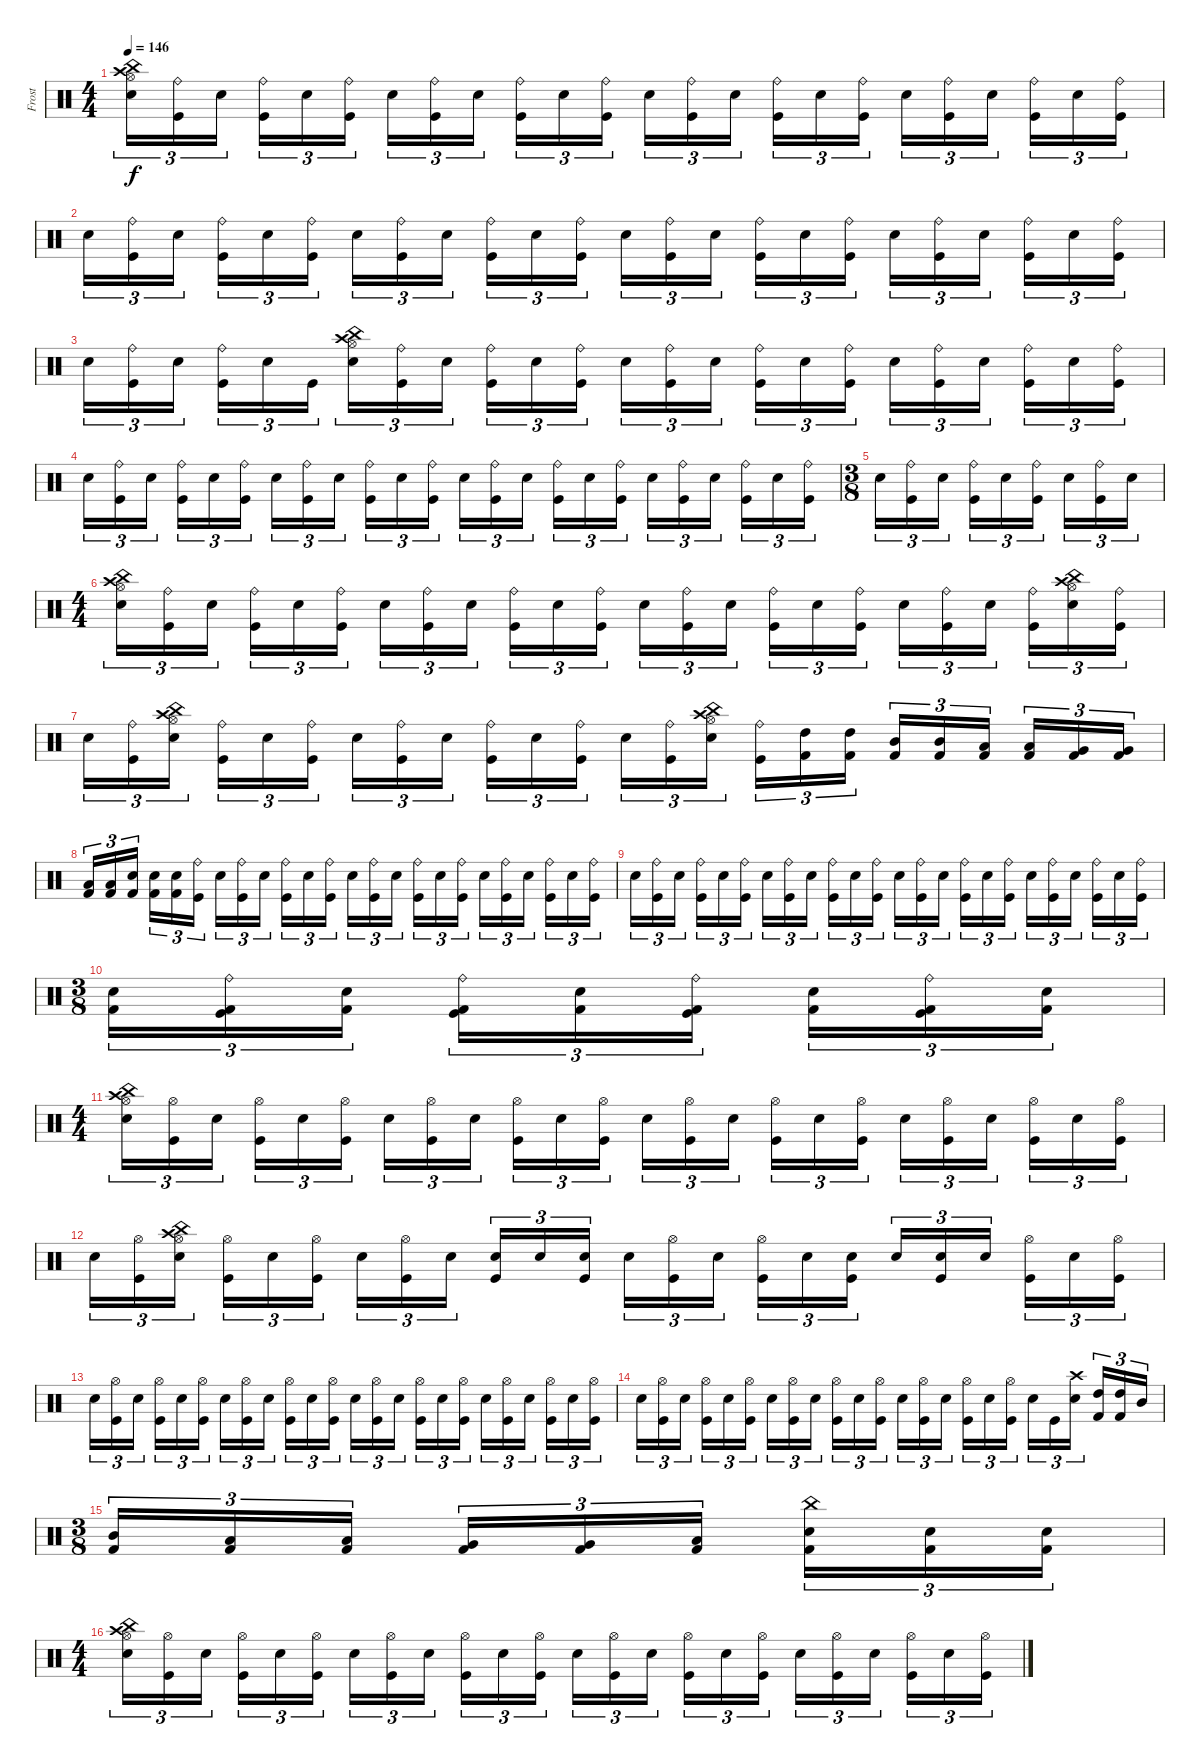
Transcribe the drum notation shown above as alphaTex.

\track ("Frost" "Frost") {instrument percussion}
\staff {score}
\articulation defaults
\ts (4 4)
\tempo 146
\clef neutral
\ks c
("China (hit)" "Crash high (hit)" "Electric Snare (hit)" "Hi-Hat (open)").16{tu (3 2) dy f} ("Ride (bell)" "Kick (hit)").16{tu (3 2)} "Electric Snare (hit)".16{tu (3 2)} ("Ride (bell)" "Kick (hit)").16{tu (3 2)} "Electric Snare (hit)".16{tu (3 2)} ("Ride (bell)" "Kick (hit)").16{tu (3 2)} "Electric Snare (hit)".16{tu (3 2)} ("Ride (bell)" "Kick (hit)").16{tu (3 2)} "Electric Snare (hit)".16{tu (3 2)} ("Ride (bell)" "Kick (hit)").16{tu (3 2)} "Electric Snare (hit)".16{tu (3 2)} ("Ride (bell)" "Kick (hit)").16{tu (3 2)} "Electric Snare (hit)".16{tu (3 2)} ("Ride (bell)" "Kick (hit)").16{tu (3 2)} "Electric Snare (hit)".16{tu (3 2)} ("Ride (bell)" "Kick (hit)").16{tu (3 2)} "Electric Snare (hit)".16{tu (3 2)} ("Ride (bell)" "Kick (hit)").16{tu (3 2)} "Electric Snare (hit)".16{tu (3 2)} ("Ride (bell)" "Kick (hit)").16{tu (3 2)} "Electric Snare (hit)".16{tu (3 2)} ("Ride (bell)" "Kick (hit)").16{tu (3 2)} "Electric Snare (hit)".16{tu (3 2)} ("Ride (bell)" "Kick (hit)").16{tu (3 2)} |
"Electric Snare (hit)".16{tu (3 2)} ("Ride (bell)" "Kick (hit)").16{tu (3 2)} "Electric Snare (hit)".16{tu (3 2)} ("Ride (bell)" "Kick (hit)").16{tu (3 2)} "Electric Snare (hit)".16{tu (3 2)} ("Ride (bell)" "Kick (hit)").16{tu (3 2)} "Electric Snare (hit)".16{tu (3 2)} ("Ride (bell)" "Kick (hit)").16{tu (3 2)} "Electric Snare (hit)".16{tu (3 2)} ("Ride (bell)" "Kick (hit)").16{tu (3 2)} "Electric Snare (hit)".16{tu (3 2)} ("Ride (bell)" "Kick (hit)").16{tu (3 2)} "Electric Snare (hit)".16{tu (3 2)} ("Ride (bell)" "Kick (hit)").16{tu (3 2)} "Electric Snare (hit)".16{tu (3 2)} ("Ride (bell)" "Kick (hit)").16{tu (3 2)} "Electric Snare (hit)".16{tu (3 2)} ("Ride (bell)" "Kick (hit)").16{tu (3 2)} "Electric Snare (hit)".16{tu (3 2)} ("Ride (bell)" "Kick (hit)").16{tu (3 2)} "Electric Snare (hit)".16{tu (3 2)} ("Ride (bell)" "Kick (hit)").16{tu (3 2)} "Electric Snare (hit)".16{tu (3 2)} ("Ride (bell)" "Kick (hit)").16{tu (3 2)} |
"Electric Snare (hit)".16{tu (3 2)} ("Ride (bell)" "Kick (hit)").16{tu (3 2)} "Electric Snare (hit)".16{tu (3 2)} ("Ride (bell)" "Kick (hit)").16{tu (3 2)} "Electric Snare (hit)".16{tu (3 2)} "Kick (hit)".16{tu (3 2)} ("China (hit)" "Crash high (hit)" "Hi-Hat (open)" "Electric Snare (hit)").16{tu (3 2)} ("Ride (bell)" "Kick (hit)").16{tu (3 2)} "Electric Snare (hit)".16{tu (3 2)} ("Ride (bell)" "Kick (hit)").16{tu (3 2)} "Electric Snare (hit)".16{tu (3 2)} ("Ride (bell)" "Kick (hit)").16{tu (3 2)} "Electric Snare (hit)".16{tu (3 2)} ("Ride (bell)" "Kick (hit)").16{tu (3 2)} "Electric Snare (hit)".16{tu (3 2)} ("Ride (bell)" "Kick (hit)").16{tu (3 2)} "Electric Snare (hit)".16{tu (3 2)} ("Ride (bell)" "Kick (hit)").16{tu (3 2)} "Electric Snare (hit)".16{tu (3 2)} ("Ride (bell)" "Kick (hit)").16{tu (3 2)} "Electric Snare (hit)".16{tu (3 2)} ("Ride (bell)" "Kick (hit)").16{tu (3 2)} "Electric Snare (hit)".16{tu (3 2)} ("Ride (bell)" "Kick (hit)").16{tu (3 2)} |
"Electric Snare (hit)".16{tu (3 2)} ("Ride (bell)" "Kick (hit)").16{tu (3 2)} "Electric Snare (hit)".16{tu (3 2)} ("Ride (bell)" "Kick (hit)").16{tu (3 2)} "Electric Snare (hit)".16{tu (3 2)} ("Ride (bell)" "Kick (hit)").16{tu (3 2)} "Electric Snare (hit)".16{tu (3 2)} ("Ride (bell)" "Kick (hit)").16{tu (3 2)} "Electric Snare (hit)".16{tu (3 2)} ("Ride (bell)" "Kick (hit)").16{tu (3 2)} "Electric Snare (hit)".16{tu (3 2)} ("Ride (bell)" "Kick (hit)").16{tu (3 2)} "Electric Snare (hit)".16{tu (3 2)} ("Ride (bell)" "Kick (hit)").16{tu (3 2)} "Electric Snare (hit)".16{tu (3 2)} ("Ride (bell)" "Kick (hit)").16{tu (3 2)} "Electric Snare (hit)".16{tu (3 2)} ("Ride (bell)" "Kick (hit)").16{tu (3 2)} "Electric Snare (hit)".16{tu (3 2)} ("Ride (bell)" "Kick (hit)").16{tu (3 2)} "Electric Snare (hit)".16{tu (3 2)} ("Ride (bell)" "Kick (hit)").16{tu (3 2)} "Electric Snare (hit)".16{tu (3 2)} ("Ride (bell)" "Kick (hit)").16{tu (3 2)} |
\ts (3 8)
"Electric Snare (hit)".16{tu (3 2)} ("Ride (bell)" "Kick (hit)").16{tu (3 2)} "Electric Snare (hit)".16{tu (3 2)} ("Ride (bell)" "Kick (hit)").16{tu (3 2)} "Electric Snare (hit)".16{tu (3 2)} ("Ride (bell)" "Kick (hit)").16{tu (3 2)} "Electric Snare (hit)".16{tu (3 2)} ("Ride (bell)" "Kick (hit)").16{tu (3 2)} "Electric Snare (hit)".16{tu (3 2)} |
\ts (4 4)
("China (hit)" "Crash high (hit)" "Electric Snare (hit)" "Hi-Hat (open)").16{tu (3 2)} ("Ride (bell)" "Kick (hit)").16{tu (3 2)} "Electric Snare (hit)".16{tu (3 2)} ("Ride (bell)" "Kick (hit)").16{tu (3 2)} "Electric Snare (hit)".16{tu (3 2)} ("Ride (bell)" "Kick (hit)").16{tu (3 2)} "Electric Snare (hit)".16{tu (3 2)} ("Ride (bell)" "Kick (hit)").16{tu (3 2)} "Electric Snare (hit)".16{tu (3 2)} ("Ride (bell)" "Kick (hit)").16{tu (3 2)} "Electric Snare (hit)".16{tu (3 2)} ("Ride (bell)" "Kick (hit)").16{tu (3 2)} "Electric Snare (hit)".16{tu (3 2)} ("Ride (bell)" "Kick (hit)").16{tu (3 2)} "Electric Snare (hit)".16{tu (3 2)} ("Ride (bell)" "Kick (hit)").16{tu (3 2)} "Electric Snare (hit)".16{tu (3 2)} ("Ride (bell)" "Kick (hit)").16{tu (3 2)} "Electric Snare (hit)".16{tu (3 2)} ("Ride (bell)" "Kick (hit)").16{tu (3 2)} "Electric Snare (hit)".16{tu (3 2)} ("Ride (bell)" "Kick (hit)").16{tu (3 2)} ("Crash high (hit)" "China (hit)" "Hi-Hat (open)" "Electric Snare (hit)").16{tu (3 2)} ("Ride (bell)" "Kick (hit)").16{tu (3 2)} |
"Electric Snare (hit)".16{tu (3 2)} ("Ride (bell)" "Kick (hit)").16{tu (3 2)} ("Crash high (hit)" "China (hit)" "Hi-Hat (open)" "Electric Snare (hit)").16{tu (3 2)} ("Ride (bell)" "Kick (hit)").16{tu (3 2)} "Electric Snare (hit)".16{tu (3 2)} ("Ride (bell)" "Kick (hit)").16{tu (3 2)} "Electric Snare (hit)".16{tu (3 2)} ("Ride (bell)" "Kick (hit)").16{tu (3 2)} "Electric Snare (hit)".16{tu (3 2)} ("Ride (bell)" "Kick (hit)").16{tu (3 2)} "Electric Snare (hit)".16{tu (3 2)} ("Ride (bell)" "Kick (hit)").16{tu (3 2)} "Electric Snare (hit)".16{tu (3 2)} ("Ride (bell)" "Kick (hit)").16{tu (3 2)} ("Crash high (hit)" "China (hit)" "Hi-Hat (open)" "Electric Snare (hit)").16{tu (3 2)} ("Ride (bell)" "Kick (hit)").16{tu (3 2)} ("Kick (hit) 2" "High Tom (hit)").16{tu (3 2)} ("Kick (hit) 2" "High Tom (hit)").16{tu (3 2)} ("Kick (hit) 2" "Mid Tom (hit)").16{tu (3 2)} ("Kick (hit) 2" "Mid Tom (hit)").16{tu (3 2)} ("Kick (hit) 2" "Low Tom (hit)").16{tu (3 2)} ("Kick (hit) 2" "Low Tom (hit)").16{tu (3 2)} ("Kick (hit) 2" "Very Low Tom (hit)").16{tu (3 2)} ("Kick (hit) 2" "Very Low Tom (hit)").16{tu (3 2)} |
("Kick (hit) 2" "Low Floor Tom (hit)").16{tu (3 2)} ("Kick (hit) 2" "Low Floor Tom (hit)").16{tu (3 2)} ("Kick (hit) 2" "Electric Snare (hit)").16{tu (3 2)} ("Kick (hit) 2" "Electric Snare (hit)").16{tu (3 2)} ("Kick (hit) 2" "Electric Snare (hit)").16{tu (3 2)} ("Ride (bell)" "Kick (hit)").16{tu (3 2)} "Electric Snare (hit)".16{tu (3 2)} ("Ride (bell)" "Kick (hit)").16{tu (3 2)} "Electric Snare (hit)".16{tu (3 2)} ("Ride (bell)" "Kick (hit)").16{tu (3 2)} "Electric Snare (hit)".16{tu (3 2)} ("Ride (bell)" "Kick (hit)").16{tu (3 2)} "Electric Snare (hit)".16{tu (3 2)} ("Ride (bell)" "Kick (hit)").16{tu (3 2)} "Electric Snare (hit)".16{tu (3 2)} ("Ride (bell)" "Kick (hit)").16{tu (3 2)} "Electric Snare (hit)".16{tu (3 2)} ("Ride (bell)" "Kick (hit)").16{tu (3 2)} "Electric Snare (hit)".16{tu (3 2)} ("Ride (bell)" "Kick (hit)").16{tu (3 2)} "Electric Snare (hit)".16{tu (3 2)} ("Ride (bell)" "Kick (hit)").16{tu (3 2)} "Electric Snare (hit)".16{tu (3 2)} ("Ride (bell)" "Kick (hit)").16{tu (3 2)} |
"Electric Snare (hit)".16{tu (3 2)} ("Ride (bell)" "Kick (hit)").16{tu (3 2)} "Electric Snare (hit)".16{tu (3 2)} ("Ride (bell)" "Kick (hit)").16{tu (3 2)} "Electric Snare (hit)".16{tu (3 2)} ("Ride (bell)" "Kick (hit)").16{tu (3 2)} "Electric Snare (hit)".16{tu (3 2)} ("Ride (bell)" "Kick (hit)").16{tu (3 2)} "Electric Snare (hit)".16{tu (3 2)} ("Ride (bell)" "Kick (hit)").16{tu (3 2)} "Electric Snare (hit)".16{tu (3 2)} ("Ride (bell)" "Kick (hit)").16{tu (3 2)} "Electric Snare (hit)".16{tu (3 2)} ("Ride (bell)" "Kick (hit)").16{tu (3 2)} "Electric Snare (hit)".16{tu (3 2)} ("Ride (bell)" "Kick (hit)").16{tu (3 2)} "Electric Snare (hit)".16{tu (3 2)} ("Ride (bell)" "Kick (hit)").16{tu (3 2)} "Electric Snare (hit)".16{tu (3 2)} ("Ride (bell)" "Kick (hit)").16{tu (3 2)} "Electric Snare (hit)".16{tu (3 2)} ("Ride (bell)" "Kick (hit)").16{tu (3 2)} "Electric Snare (hit)".16{tu (3 2)} ("Ride (bell)" "Kick (hit)").16{tu (3 2)} |
\ts (3 8)
("Electric Snare (hit)" "Kick (hit) 2").16{tu (3 2)} ("Ride (bell)" "Kick (hit)" "Kick (hit) 2").16{tu (3 2)} ("Electric Snare (hit)" "Kick (hit) 2").16{tu (3 2)} ("Ride (bell)" "Kick (hit)" "Kick (hit) 2").16{tu (3 2)} ("Electric Snare (hit)" "Kick (hit) 2").16{tu (3 2)} ("Ride (bell)" "Kick (hit)" "Kick (hit) 2").16{tu (3 2)} ("Electric Snare (hit)" "Kick (hit) 2").16{tu (3 2)} ("Ride (bell)" "Kick (hit)" "Kick (hit) 2").16{tu (3 2)} ("Electric Snare (hit)" "Kick (hit) 2").16{tu (3 2)} |
\ts (4 4)
("China (hit)" "Crash high (hit)" "Electric Snare (hit)" "Hi-Hat (open)").16{tu (3 2)} ("Hi-Hat (open)" "Kick (hit)").16{tu (3 2)} "Electric Snare (hit)".16{tu (3 2)} ("Hi-Hat (open)" "Kick (hit)").16{tu (3 2)} "Electric Snare (hit)".16{tu (3 2)} ("Hi-Hat (open)" "Kick (hit)").16{tu (3 2)} "Electric Snare (hit)".16{tu (3 2)} ("Hi-Hat (open)" "Kick (hit)").16{tu (3 2)} "Electric Snare (hit)".16{tu (3 2)} ("Hi-Hat (open)" "Kick (hit)").16{tu (3 2)} "Electric Snare (hit)".16{tu (3 2)} ("Hi-Hat (open)" "Kick (hit)").16{tu (3 2)} "Electric Snare (hit)".16{tu (3 2)} ("Hi-Hat (open)" "Kick (hit)").16{tu (3 2)} "Electric Snare (hit)".16{tu (3 2)} ("Hi-Hat (open)" "Kick (hit)").16{tu (3 2)} "Electric Snare (hit)".16{tu (3 2)} ("Hi-Hat (open)" "Kick (hit)").16{tu (3 2)} "Electric Snare (hit)".16{tu (3 2)} ("Hi-Hat (open)" "Kick (hit)").16{tu (3 2)} "Electric Snare (hit)".16{tu (3 2)} ("Hi-Hat (open)" "Kick (hit)").16{tu (3 2)} "Electric Snare (hit)".16{tu (3 2)} ("Hi-Hat (open)" "Kick (hit)").16{tu (3 2)} |
"Electric Snare (hit)".16{tu (3 2)} ("Hi-Hat (open)" "Kick (hit)").16{tu (3 2)} ("China (hit)" "Crash high (hit)" "Hi-Hat (open)" "Electric Snare (hit)").16{tu (3 2)} ("Hi-Hat (open)" "Kick (hit)").16{tu (3 2)} "Electric Snare (hit)".16{tu (3 2)} ("Hi-Hat (open)" "Kick (hit)").16{tu (3 2)} "Electric Snare (hit)".16{tu (3 2)} ("Hi-Hat (open)" "Kick (hit)").16{tu (3 2)} "Electric Snare (hit)".16{tu (3 2)} ("Kick (hit)" "Electric Snare (hit)").16{tu (3 2)} "Electric Snare (hit)".16{tu (3 2)} ("Kick (hit)" "Snare (hit) 2").16{tu (3 2)} "Electric Snare (hit)".16{tu (3 2)} ("Hi-Hat (open)" "Kick (hit)").16{tu (3 2)} "Electric Snare (hit)".16{tu (3 2)} ("Hi-Hat (open)" "Kick (hit)").16{tu (3 2)} "Electric Snare (hit)".16{tu (3 2)} ("Kick (hit)" "Electric Snare (hit)").16{tu (3 2)} "Electric Snare (hit)".16{tu (3 2)} ("Kick (hit)" "Snare (hit) 2").16{tu (3 2)} "Electric Snare (hit)".16{tu (3 2)} ("Hi-Hat (open)" "Kick (hit)").16{tu (3 2)} "Electric Snare (hit)".16{tu (3 2)} ("Hi-Hat (open)" "Kick (hit)").16{tu (3 2)} |
"Electric Snare (hit)".16{tu (3 2)} ("Hi-Hat (open)" "Kick (hit)").16{tu (3 2)} "Electric Snare (hit)".16{tu (3 2)} ("Hi-Hat (open)" "Kick (hit)").16{tu (3 2)} "Electric Snare (hit)".16{tu (3 2)} ("Hi-Hat (open)" "Kick (hit)").16{tu (3 2)} "Electric Snare (hit)".16{tu (3 2)} ("Hi-Hat (open)" "Kick (hit)").16{tu (3 2)} "Electric Snare (hit)".16{tu (3 2)} ("Hi-Hat (open)" "Kick (hit)").16{tu (3 2)} "Electric Snare (hit)".16{tu (3 2)} ("Hi-Hat (open)" "Kick (hit)").16{tu (3 2)} "Electric Snare (hit)".16{tu (3 2)} ("Hi-Hat (open)" "Kick (hit)").16{tu (3 2)} "Electric Snare (hit)".16{tu (3 2)} ("Hi-Hat (open)" "Kick (hit)").16{tu (3 2)} "Electric Snare (hit)".16{tu (3 2)} ("Hi-Hat (open)" "Kick (hit)").16{tu (3 2)} "Electric Snare (hit)".16{tu (3 2)} ("Hi-Hat (open)" "Kick (hit)").16{tu (3 2)} "Electric Snare (hit)".16{tu (3 2)} ("Hi-Hat (open)" "Kick (hit)").16{tu (3 2)} "Electric Snare (hit)".16{tu (3 2)} ("Hi-Hat (open)" "Kick (hit)").16{tu (3 2)} |
"Electric Snare (hit)".16{tu (3 2)} ("Hi-Hat (open)" "Kick (hit)").16{tu (3 2)} "Electric Snare (hit)".16{tu (3 2)} ("Hi-Hat (open)" "Kick (hit)").16{tu (3 2)} "Electric Snare (hit)".16{tu (3 2)} ("Hi-Hat (open)" "Kick (hit)").16{tu (3 2)} "Electric Snare (hit)".16{tu (3 2)} ("Hi-Hat (open)" "Kick (hit)").16{tu (3 2)} "Electric Snare (hit)".16{tu (3 2)} ("Hi-Hat (open)" "Kick (hit)").16{tu (3 2)} "Electric Snare (hit)".16{tu (3 2)} ("Hi-Hat (open)" "Kick (hit)").16{tu (3 2)} "Electric Snare (hit)".16{tu (3 2)} ("Hi-Hat (open)" "Kick (hit)").16{tu (3 2)} "Electric Snare (hit)".16{tu (3 2)} ("Hi-Hat (open)" "Kick (hit)").16{tu (3 2)} "Electric Snare (hit)".16{tu (3 2)} ("Hi-Hat (open)" "Kick (hit)").16{tu (3 2)} "Electric Snare (hit)".16{tu (3 2)} "Kick (hit)".16{tu (3 2)} ("Crash high (hit)" "Electric Snare (hit)").16{tu (3 2)} ("Kick (hit) 2" "High Tom (hit)").16{tu (3 2)} ("Kick (hit) 2" "High Tom (hit)").16{tu (3 2)} "Mid Tom (hit)".16{tu (3 2)} |
\ts (3 8)
("Kick (hit) 2" "Mid Tom (hit)").16{tu (3 2)} ("Kick (hit) 2" "Low Tom (hit)").16{tu (3 2)} ("Kick (hit) 2" "Low Tom (hit)").16{tu (3 2)} ("Kick (hit) 2" "Very Low Tom (hit)").16{tu (3 2)} ("Kick (hit) 2" "Very Low Tom (hit)").16{tu (3 2)} ("Kick (hit) 2" "Low Floor Tom (hit)").16{tu (3 2)} ("Kick (hit) 2" "China (hit)" "Electric Snare (hit)").16{tu (3 2)} ("Kick (hit) 2" "Electric Snare (hit)").16{tu (3 2)} ("Kick (hit) 2" "Electric Snare (hit)").16{tu (3 2)} |
\ts (4 4)
("China (hit)" "Crash high (hit)" "Electric Snare (hit)" "Hi-Hat (open)").16{tu (3 2)} ("Hi-Hat (open)" "Kick (hit)").16{tu (3 2)} "Electric Snare (hit)".16{tu (3 2)} ("Hi-Hat (open)" "Kick (hit)").16{tu (3 2)} "Electric Snare (hit)".16{tu (3 2)} ("Hi-Hat (open)" "Kick (hit)").16{tu (3 2)} "Electric Snare (hit)".16{tu (3 2)} ("Hi-Hat (open)" "Kick (hit)").16{tu (3 2)} "Electric Snare (hit)".16{tu (3 2)} ("Hi-Hat (open)" "Kick (hit)").16{tu (3 2)} "Electric Snare (hit)".16{tu (3 2)} ("Hi-Hat (open)" "Kick (hit)").16{tu (3 2)} "Electric Snare (hit)".16{tu (3 2)} ("Hi-Hat (open)" "Kick (hit)").16{tu (3 2)} "Electric Snare (hit)".16{tu (3 2)} ("Hi-Hat (open)" "Kick (hit)").16{tu (3 2)} "Electric Snare (hit)".16{tu (3 2)} ("Hi-Hat (open)" "Kick (hit)").16{tu (3 2)} "Electric Snare (hit)".16{tu (3 2)} ("Hi-Hat (open)" "Kick (hit)").16{tu (3 2)} "Electric Snare (hit)".16{tu (3 2)} ("Hi-Hat (open)" "Kick (hit)").16{tu (3 2)} "Electric Snare (hit)".16{tu (3 2)} ("Hi-Hat (open)" "Kick (hit)").16{tu (3 2)}
